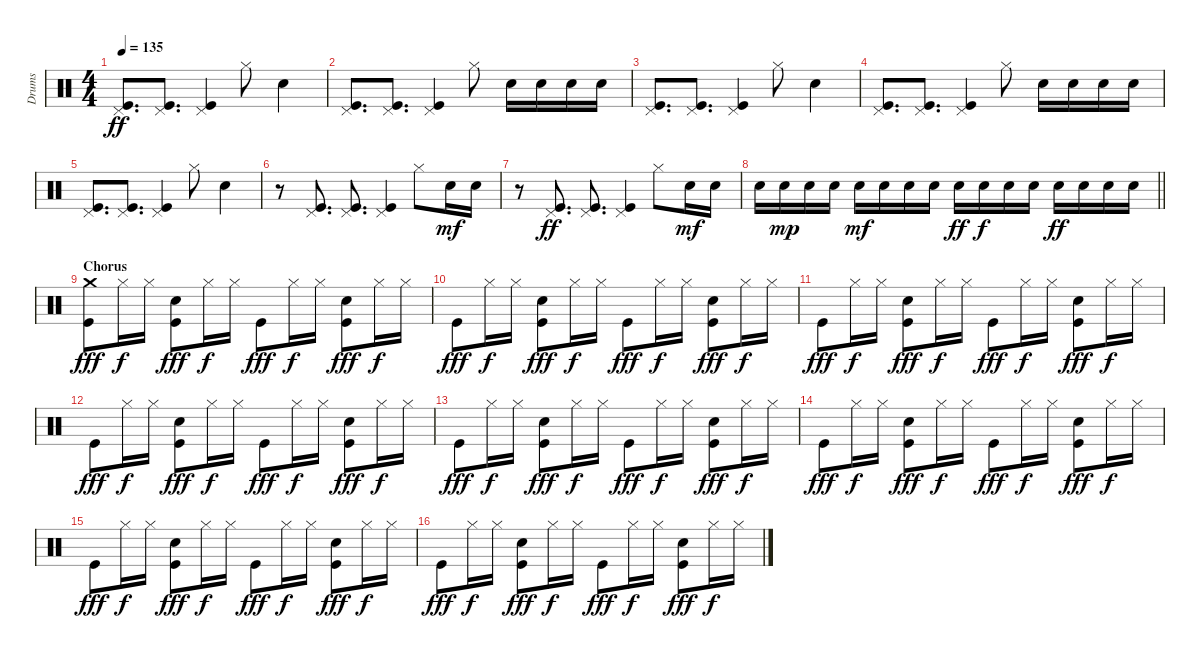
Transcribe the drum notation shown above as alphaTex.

\track ("Drums" "Drums") {instrument percussion}
\staff {score}
\articulation defaults
\ts (4 4)
\tempo 135
\clef neutral
\ks c
("Kick (hit)" "Pedal Hi-Hat (hit)").8{d dy ff} ("Kick (hit)" "Pedal Hi-Hat (hit)").8{d} ("Kick (hit)" "Pedal Hi-Hat (hit)").4 "Hi-Hat (closed)".8 "Snare (hit) 2".4 |
("Kick (hit)" "Pedal Hi-Hat (hit)").8{d} ("Kick (hit)" "Pedal Hi-Hat (hit)").8{d} ("Kick (hit)" "Pedal Hi-Hat (hit)").4 "Hi-Hat (closed)".8 "Snare (hit) 2".16 "Snare (hit) 2".16 "Snare (hit) 2".16 "Snare (hit) 2".16 |
("Kick (hit)" "Pedal Hi-Hat (hit)").8{d} ("Kick (hit)" "Pedal Hi-Hat (hit)").8{d} ("Kick (hit)" "Pedal Hi-Hat (hit)").4 "Hi-Hat (closed)".8 "Snare (hit) 2".4 |
("Kick (hit)" "Pedal Hi-Hat (hit)").8{d} ("Kick (hit)" "Pedal Hi-Hat (hit)").8{d} ("Kick (hit)" "Pedal Hi-Hat (hit)").4 "Hi-Hat (closed)".8 "Snare (hit) 2".16 "Snare (hit) 2".16 "Snare (hit) 2".16 "Snare (hit) 2".16 |
("Kick (hit)" "Pedal Hi-Hat (hit)").8{d} ("Kick (hit)" "Pedal Hi-Hat (hit)").8{d} ("Kick (hit)" "Pedal Hi-Hat (hit)").4 "Hi-Hat (closed)".8 "Snare (hit) 2".4 |
r.8 ("Kick (hit)" "Pedal Hi-Hat (hit)").8{d} ("Kick (hit)" "Pedal Hi-Hat (hit)").8{d} ("Kick (hit)" "Pedal Hi-Hat (hit)").4 "Hi-Hat (closed)".8 "Snare (hit) 2".16{dy mf} "Snare (hit) 2".16 |
r.8 ("Kick (hit)" "Pedal Hi-Hat (hit)").8{d dy ff} ("Kick (hit)" "Pedal Hi-Hat (hit)").8{d} ("Kick (hit)" "Pedal Hi-Hat (hit)").4 "Hi-Hat (closed)".8 "Snare (hit) 2".16{dy mf} "Snare (hit) 2".16 |
\barLineRight lightlight "Snare (hit) 2".16 "Snare (hit) 2".16{dy mp} "Snare (hit) 2".16 "Snare (hit) 2".16 "Snare (hit) 2".16{dy mf} "Snare (hit) 2".16 "Snare (hit) 2".16 "Snare (hit) 2".16 "Snare (hit) 2".16{dy ff} "Snare (hit) 2".16{dy f} "Snare (hit) 2".16 "Snare (hit) 2".16 "Snare (hit) 2".16{dy ff} "Snare (hit) 2".16 "Snare (hit) 2".16 "Snare (hit) 2".16
|
\section ("" "Chorus")
("Kick (hit)" "Crash medium (hit)").8{dy fff} "Hi-Hat (closed)".16{dy f} "Hi-Hat (closed)".16 ("Kick (hit)" "Snare (hit) 2").8{dy fff} "Hi-Hat (closed)".16{dy f} "Hi-Hat (closed)".16 "Kick (hit)".8{dy fff} "Hi-Hat (closed)".16{dy f} "Hi-Hat (closed)".16 ("Kick (hit)" "Snare (hit) 2").8{dy fff} "Hi-Hat (closed)".16{dy f} "Hi-Hat (closed)".16 |
"Kick (hit)".8{dy fff} "Hi-Hat (closed)".16{dy f} "Hi-Hat (closed)".16 ("Kick (hit)" "Snare (hit) 2").8{dy fff} "Hi-Hat (closed)".16{dy f} "Hi-Hat (closed)".16 "Kick (hit)".8{dy fff} "Hi-Hat (closed)".16{dy f} "Hi-Hat (closed)".16 ("Kick (hit)" "Snare (hit) 2").8{dy fff} "Hi-Hat (closed)".16{dy f} "Hi-Hat (closed)".16 |
"Kick (hit)".8{dy fff} "Hi-Hat (closed)".16{dy f} "Hi-Hat (closed)".16 ("Kick (hit)" "Snare (hit) 2").8{dy fff} "Hi-Hat (closed)".16{dy f} "Hi-Hat (closed)".16 "Kick (hit)".8{dy fff} "Hi-Hat (closed)".16{dy f} "Hi-Hat (closed)".16 ("Kick (hit)" "Snare (hit) 2").8{dy fff} "Hi-Hat (closed)".16{dy f} "Hi-Hat (closed)".16 |
"Kick (hit)".8{dy fff} "Hi-Hat (closed)".16{dy f} "Hi-Hat (closed)".16 ("Kick (hit)" "Snare (hit) 2").8{dy fff} "Hi-Hat (closed)".16{dy f} "Hi-Hat (closed)".16 "Kick (hit)".8{dy fff} "Hi-Hat (closed)".16{dy f} "Hi-Hat (closed)".16 ("Kick (hit)" "Snare (hit) 2").8{dy fff} "Hi-Hat (closed)".16{dy f} "Hi-Hat (closed)".16 |
"Kick (hit)".8{dy fff} "Hi-Hat (closed)".16{dy f} "Hi-Hat (closed)".16 ("Kick (hit)" "Snare (hit) 2").8{dy fff} "Hi-Hat (closed)".16{dy f} "Hi-Hat (closed)".16 "Kick (hit)".8{dy fff} "Hi-Hat (closed)".16{dy f} "Hi-Hat (closed)".16 ("Kick (hit)" "Snare (hit) 2").8{dy fff} "Hi-Hat (closed)".16{dy f} "Hi-Hat (closed)".16 |
"Kick (hit)".8{dy fff} "Hi-Hat (closed)".16{dy f} "Hi-Hat (closed)".16 ("Kick (hit)" "Snare (hit) 2").8{dy fff} "Hi-Hat (closed)".16{dy f} "Hi-Hat (closed)".16 "Kick (hit)".8{dy fff} "Hi-Hat (closed)".16{dy f} "Hi-Hat (closed)".16 ("Kick (hit)" "Snare (hit) 2").8{dy fff} "Hi-Hat (closed)".16{dy f} "Hi-Hat (closed)".16 |
"Kick (hit)".8{dy fff} "Hi-Hat (closed)".16{dy f} "Hi-Hat (closed)".16 ("Kick (hit)" "Snare (hit) 2").8{dy fff} "Hi-Hat (closed)".16{dy f} "Hi-Hat (closed)".16 "Kick (hit)".8{dy fff} "Hi-Hat (closed)".16{dy f} "Hi-Hat (closed)".16 ("Kick (hit)" "Snare (hit) 2").8{dy fff} "Hi-Hat (closed)".16{dy f} "Hi-Hat (closed)".16 |
"Kick (hit)".8{dy fff} "Hi-Hat (closed)".16{dy f} "Hi-Hat (closed)".16 ("Kick (hit)" "Snare (hit) 2").8{dy fff} "Hi-Hat (closed)".16{dy f} "Hi-Hat (closed)".16 "Kick (hit)".8{dy fff} "Hi-Hat (closed)".16{dy f} "Hi-Hat (closed)".16 ("Kick (hit)" "Snare (hit) 2").8{dy fff} "Hi-Hat (closed)".16{dy f} "Hi-Hat (closed)".16
